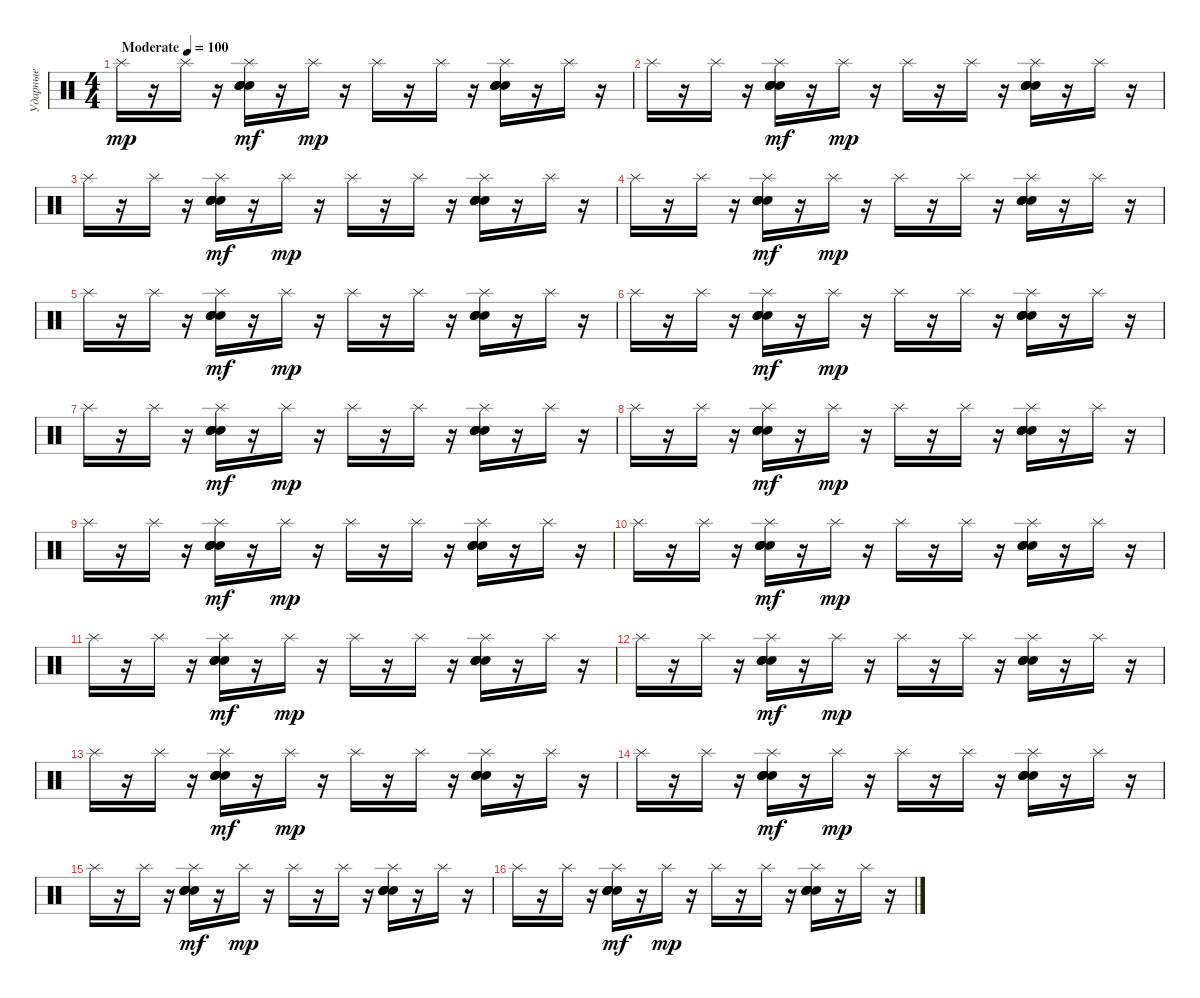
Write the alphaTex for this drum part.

\track ("Ударные" "Ударные") {instrument percussion}
\staff {score}
\articulation defaults
\ts (4 4)
\tempo (100 "Moderate")
\clef neutral
\ks c "Splash (hit)".16{dy mp}
r.16 "Splash (hit)".16 r.16 ("Electric Snare (hit)" "Electric Snare (hit)" "Electric Snare (hit)" "Electric Snare (hit)" "Splash (hit)").16{dy mf} r.16 "Splash (hit)".16{dy mp} r.16 "Splash (hit)".16 r.16 "Splash (hit)".16 r.16 ("Electric Snare (hit)" "Electric Snare (hit)" "Electric Snare (hit)" "Electric Snare (hit)" "Splash (hit)").16 r.16 "Splash (hit)".16 r.16 |
"Splash (hit)".16 r.16 "Splash (hit)".16 r.16 ("Electric Snare (hit)" "Electric Snare (hit)" "Electric Snare (hit)" "Electric Snare (hit)" "Splash (hit)").16{dy mf} r.16 "Splash (hit)".16{dy mp} r.16 "Splash (hit)".16 r.16 "Splash (hit)".16 r.16 ("Electric Snare (hit)" "Electric Snare (hit)" "Electric Snare (hit)" "Electric Snare (hit)" "Splash (hit)").16 r.16 "Splash (hit)".16 r.16 |
"Splash (hit)".16 r.16 "Splash (hit)".16 r.16 ("Electric Snare (hit)" "Electric Snare (hit)" "Electric Snare (hit)" "Electric Snare (hit)" "Splash (hit)").16{dy mf} r.16 "Splash (hit)".16{dy mp} r.16 "Splash (hit)".16 r.16 "Splash (hit)".16 r.16 ("Electric Snare (hit)" "Electric Snare (hit)" "Electric Snare (hit)" "Electric Snare (hit)" "Splash (hit)").16 r.16 "Splash (hit)".16 r.16 |
"Splash (hit)".16 r.16 "Splash (hit)".16 r.16 ("Electric Snare (hit)" "Electric Snare (hit)" "Electric Snare (hit)" "Electric Snare (hit)" "Splash (hit)").16{dy mf} r.16 "Splash (hit)".16{dy mp} r.16 "Splash (hit)".16 r.16 "Splash (hit)".16 r.16 ("Electric Snare (hit)" "Electric Snare (hit)" "Electric Snare (hit)" "Electric Snare (hit)" "Splash (hit)").16 r.16 "Splash (hit)".16 r.16 |
"Splash (hit)".16 r.16 "Splash (hit)".16 r.16 ("Electric Snare (hit)" "Electric Snare (hit)" "Electric Snare (hit)" "Electric Snare (hit)" "Splash (hit)").16{dy mf} r.16 "Splash (hit)".16{dy mp} r.16 "Splash (hit)".16 r.16 "Splash (hit)".16 r.16 ("Electric Snare (hit)" "Electric Snare (hit)" "Electric Snare (hit)" "Electric Snare (hit)" "Splash (hit)").16 r.16 "Splash (hit)".16 r.16 |
"Splash (hit)".16 r.16 "Splash (hit)".16 r.16 ("Electric Snare (hit)" "Electric Snare (hit)" "Electric Snare (hit)" "Electric Snare (hit)" "Splash (hit)").16{dy mf} r.16 "Splash (hit)".16{dy mp} r.16 "Splash (hit)".16 r.16 "Splash (hit)".16 r.16 ("Electric Snare (hit)" "Electric Snare (hit)" "Electric Snare (hit)" "Electric Snare (hit)" "Splash (hit)").16 r.16 "Splash (hit)".16 r.16 |
"Splash (hit)".16 r.16 "Splash (hit)".16 r.16 ("Electric Snare (hit)" "Electric Snare (hit)" "Electric Snare (hit)" "Electric Snare (hit)" "Splash (hit)").16{dy mf} r.16 "Splash (hit)".16{dy mp} r.16 "Splash (hit)".16 r.16 "Splash (hit)".16 r.16 ("Electric Snare (hit)" "Electric Snare (hit)" "Electric Snare (hit)" "Electric Snare (hit)" "Splash (hit)").16 r.16 "Splash (hit)".16 r.16 |
"Splash (hit)".16 r.16 "Splash (hit)".16 r.16 ("Electric Snare (hit)" "Electric Snare (hit)" "Electric Snare (hit)" "Electric Snare (hit)" "Splash (hit)").16{dy mf} r.16 "Splash (hit)".16{dy mp} r.16 "Splash (hit)".16 r.16 "Splash (hit)".16 r.16 ("Electric Snare (hit)" "Electric Snare (hit)" "Electric Snare (hit)" "Electric Snare (hit)" "Splash (hit)").16 r.16 "Splash (hit)".16 r.16 |
"Splash (hit)".16 r.16 "Splash (hit)".16 r.16 ("Electric Snare (hit)" "Electric Snare (hit)" "Electric Snare (hit)" "Electric Snare (hit)" "Splash (hit)").16{dy mf} r.16 "Splash (hit)".16{dy mp} r.16 "Splash (hit)".16 r.16 "Splash (hit)".16 r.16 ("Electric Snare (hit)" "Electric Snare (hit)" "Electric Snare (hit)" "Electric Snare (hit)" "Splash (hit)").16 r.16 "Splash (hit)".16 r.16 |
"Splash (hit)".16 r.16 "Splash (hit)".16 r.16 ("Electric Snare (hit)" "Electric Snare (hit)" "Electric Snare (hit)" "Electric Snare (hit)" "Splash (hit)").16{dy mf} r.16 "Splash (hit)".16{dy mp} r.16 "Splash (hit)".16 r.16 "Splash (hit)".16 r.16 ("Electric Snare (hit)" "Electric Snare (hit)" "Electric Snare (hit)" "Electric Snare (hit)" "Splash (hit)").16 r.16 "Splash (hit)".16 r.16 |
"Splash (hit)".16 r.16 "Splash (hit)".16 r.16 ("Electric Snare (hit)" "Electric Snare (hit)" "Electric Snare (hit)" "Electric Snare (hit)" "Splash (hit)").16{dy mf} r.16 "Splash (hit)".16{dy mp} r.16 "Splash (hit)".16 r.16 "Splash (hit)".16 r.16 ("Electric Snare (hit)" "Electric Snare (hit)" "Electric Snare (hit)" "Electric Snare (hit)" "Splash (hit)").16 r.16 "Splash (hit)".16 r.16 |
"Splash (hit)".16 r.16 "Splash (hit)".16 r.16 ("Electric Snare (hit)" "Electric Snare (hit)" "Electric Snare (hit)" "Electric Snare (hit)" "Splash (hit)").16{dy mf} r.16 "Splash (hit)".16{dy mp} r.16 "Splash (hit)".16 r.16 "Splash (hit)".16 r.16 ("Electric Snare (hit)" "Electric Snare (hit)" "Electric Snare (hit)" "Electric Snare (hit)" "Splash (hit)").16 r.16 "Splash (hit)".16 r.16 |
"Splash (hit)".16 r.16 "Splash (hit)".16 r.16 ("Electric Snare (hit)" "Electric Snare (hit)" "Electric Snare (hit)" "Electric Snare (hit)" "Splash (hit)").16{dy mf} r.16 "Splash (hit)".16{dy mp} r.16 "Splash (hit)".16 r.16 "Splash (hit)".16 r.16 ("Electric Snare (hit)" "Electric Snare (hit)" "Electric Snare (hit)" "Electric Snare (hit)" "Splash (hit)").16 r.16 "Splash (hit)".16 r.16 |
"Splash (hit)".16 r.16 "Splash (hit)".16 r.16 ("Electric Snare (hit)" "Electric Snare (hit)" "Electric Snare (hit)" "Electric Snare (hit)" "Splash (hit)").16{dy mf} r.16 "Splash (hit)".16{dy mp} r.16 "Splash (hit)".16 r.16 "Splash (hit)".16 r.16 ("Electric Snare (hit)" "Electric Snare (hit)" "Electric Snare (hit)" "Electric Snare (hit)" "Splash (hit)").16 r.16 "Splash (hit)".16 r.16 |
"Splash (hit)".16 r.16 "Splash (hit)".16 r.16 ("Electric Snare (hit)" "Electric Snare (hit)" "Electric Snare (hit)" "Electric Snare (hit)" "Splash (hit)").16{dy mf} r.16 "Splash (hit)".16{dy mp} r.16 "Splash (hit)".16 r.16 "Splash (hit)".16 r.16 ("Electric Snare (hit)" "Electric Snare (hit)" "Electric Snare (hit)" "Electric Snare (hit)" "Splash (hit)").16 r.16 "Splash (hit)".16 r.16 |
"Splash (hit)".16 r.16 "Splash (hit)".16 r.16 ("Electric Snare (hit)" "Electric Snare (hit)" "Electric Snare (hit)" "Electric Snare (hit)" "Splash (hit)").16{dy mf} r.16 "Splash (hit)".16{dy mp} r.16 "Splash (hit)".16 r.16 "Splash (hit)".16 r.16 ("Electric Snare (hit)" "Electric Snare (hit)" "Electric Snare (hit)" "Electric Snare (hit)" "Splash (hit)").16 r.16 "Splash (hit)".16 r.16
